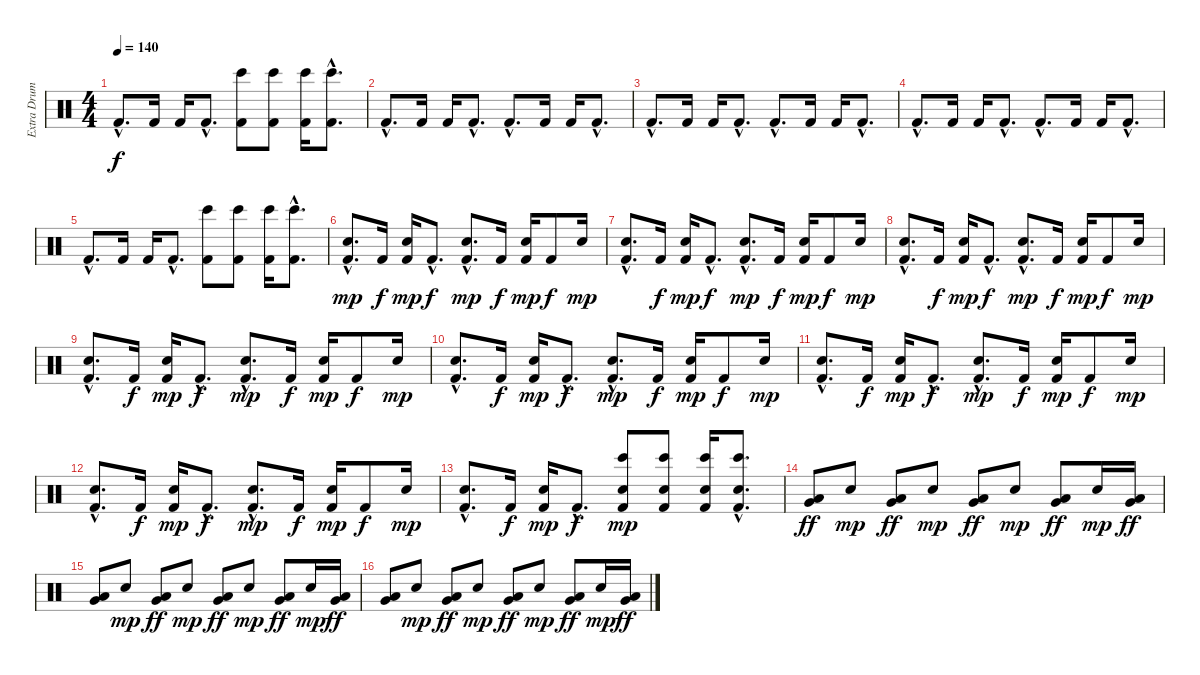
\track ("Extra Drums" "Extra Drum") {instrument percussion}
\staff {score}
\articulation defaults
\ts (4 4)
\tempo 140
\clef neutral
\ks c "Kick (hit) 2"{hac}.8{d dy f} "Kick (hit) 2".16 "Kick (hit) 2".16 "Kick (hit) 2"{hac}.8{d}
("Bongo High (hit)" "Kick (hit) 2").8 ("Bongo High (hit)" "Kick (hit) 2").8 ("Bongo High (hit)" "Kick (hit) 2").16 ("Bongo High (hit)"{hac} "Kick (hit) 2"{hac}).8{d} |
"Kick (hit) 2"{hac}.8{d} "Kick (hit) 2".16 "Kick (hit) 2".16 "Kick (hit) 2"{hac}.8{d} "Kick (hit) 2"{hac}.8{d} "Kick (hit) 2".16 "Kick (hit) 2".16 "Kick (hit) 2"{hac}.8{d} |
"Kick (hit) 2"{hac}.8{d} "Kick (hit) 2".16 "Kick (hit) 2".16 "Kick (hit) 2"{hac}.8{d} "Kick (hit) 2"{hac}.8{d} "Kick (hit) 2".16 "Kick (hit) 2".16 "Kick (hit) 2"{hac}.8{d} |
"Kick (hit) 2"{hac}.8{d} "Kick (hit) 2".16 "Kick (hit) 2".16 "Kick (hit) 2"{hac}.8{d} "Kick (hit) 2"{hac}.8{d} "Kick (hit) 2".16 "Kick (hit) 2".16 "Kick (hit) 2"{hac}.8{d} |
"Kick (hit) 2"{hac}.8{d} "Kick (hit) 2".16 "Kick (hit) 2".16 "Kick (hit) 2"{hac}.8{d} ("Bongo High (hit)" "Kick (hit) 2").8 ("Bongo High (hit)" "Kick (hit) 2").8 ("Bongo High (hit)" "Kick (hit) 2").16 ("Bongo High (hit)"{hac} "Kick (hit) 2"{hac}).8{d} |
("Snare (hit) 2"{hac} "Kick (hit) 2"{hac}).8{d dy mp} "Kick (hit) 2".16{dy f} ("Snare (hit) 2" "Kick (hit) 2").16{dy mp} "Kick (hit) 2"{hac}.8{d dy f} ("Snare (hit) 2"{hac} "Kick (hit) 2"{hac}).8{d dy mp} "Kick (hit) 2".16{dy f} ("Snare (hit) 2" "Kick (hit) 2").16{dy mp} "Kick (hit) 2".8{dy f} "Snare (hit) 2".16{dy mp} |
("Snare (hit) 2"{hac} "Kick (hit) 2"{hac}).8{d} "Kick (hit) 2".16{dy f} ("Snare (hit) 2" "Kick (hit) 2").16{dy mp} "Kick (hit) 2"{hac}.8{d dy f} ("Snare (hit) 2"{hac} "Kick (hit) 2"{hac}).8{d dy mp} "Kick (hit) 2".16{dy f} ("Snare (hit) 2" "Kick (hit) 2").16{dy mp} "Kick (hit) 2".8{dy f} "Snare (hit) 2".16{dy mp} |
("Snare (hit) 2"{hac} "Kick (hit) 2"{hac}).8{d} "Kick (hit) 2".16{dy f} ("Snare (hit) 2" "Kick (hit) 2").16{dy mp} "Kick (hit) 2"{hac}.8{d dy f} ("Snare (hit) 2"{hac} "Kick (hit) 2"{hac}).8{d dy mp} "Kick (hit) 2".16{dy f} ("Snare (hit) 2" "Kick (hit) 2").16{dy mp} "Kick (hit) 2".8{dy f} "Snare (hit) 2".16{dy mp} |
("Snare (hit) 2"{hac} "Kick (hit) 2"{hac}).8{d} "Kick (hit) 2".16{dy f} ("Snare (hit) 2" "Kick (hit) 2").16{dy mp} "Kick (hit) 2"{hac}.8{d dy f} ("Snare (hit) 2"{hac} "Kick (hit) 2"{hac}).8{d dy mp} "Kick (hit) 2".16{dy f} ("Snare (hit) 2" "Kick (hit) 2").16{dy mp} "Kick (hit) 2".8{dy f} "Snare (hit) 2".16{dy mp} |
("Snare (hit) 2"{hac} "Kick (hit) 2"{hac}).8{d} "Kick (hit) 2".16{dy f} ("Snare (hit) 2" "Kick (hit) 2").16{dy mp} "Kick (hit) 2"{hac}.8{d dy f} ("Snare (hit) 2"{hac} "Kick (hit) 2"{hac}).8{d dy mp} "Kick (hit) 2".16{dy f} ("Snare (hit) 2" "Kick (hit) 2").16{dy mp} "Kick (hit) 2".8{dy f} "Snare (hit) 2".16{dy mp} |
("Snare (hit) 2"{hac} "Kick (hit) 2"{hac}).8{d} "Kick (hit) 2".16{dy f} ("Snare (hit) 2" "Kick (hit) 2").16{dy mp} "Kick (hit) 2"{hac}.8{d dy f} ("Snare (hit) 2"{hac} "Kick (hit) 2"{hac}).8{d dy mp} "Kick (hit) 2".16{dy f} ("Snare (hit) 2" "Kick (hit) 2").16{dy mp} "Kick (hit) 2".8{dy f} "Snare (hit) 2".16{dy mp} |
("Snare (hit) 2"{hac} "Kick (hit) 2"{hac}).8{d} "Kick (hit) 2".16{dy f} ("Snare (hit) 2" "Kick (hit) 2").16{dy mp} "Kick (hit) 2"{hac}.8{d dy f} ("Snare (hit) 2"{hac} "Kick (hit) 2"{hac}).8{d dy mp} "Kick (hit) 2".16{dy f} ("Snare (hit) 2" "Kick (hit) 2").16{dy mp} "Kick (hit) 2".8{dy f} "Snare (hit) 2".16{dy mp} |
("Snare (hit) 2"{hac} "Kick (hit) 2"{hac}).8{d} "Kick (hit) 2".16{dy f} ("Snare (hit) 2" "Kick (hit) 2").16{dy mp} "Kick (hit) 2"{hac}.8{d dy f} ("Snare (hit) 2" "Bongo High (hit)" "Kick (hit) 2").8{dy mp} ("Snare (hit) 2" "Bongo High (hit)" "Kick (hit) 2").8 ("Snare (hit) 2" "Bongo High (hit)" "Kick (hit) 2").16 ("Snare (hit) 2"{hac} "Bongo High (hit)"{hac} "Kick (hit) 2"{hac}).8{d} |
("Low Floor Tom (hit)" "Very Low Tom (hit)").8{dy ff} "Snare (hit) 2".8{dy mp} ("Low Floor Tom (hit)" "Very Low Tom (hit)").8{dy ff} "Snare (hit) 2".8{dy mp} ("Low Floor Tom (hit)" "Very Low Tom (hit)").8{dy ff} "Snare (hit) 2".8{dy mp} ("Low Floor Tom (hit)" "Very Low Tom (hit)").8{dy ff} "Snare (hit) 2".16{dy mp} ("Low Floor Tom (hit)" "Very Low Tom (hit)").16{dy ff} |
("Low Floor Tom (hit)" "Very Low Tom (hit)").8 "Snare (hit) 2".8{dy mp} ("Low Floor Tom (hit)" "Very Low Tom (hit)").8{dy ff} "Snare (hit) 2".8{dy mp} ("Low Floor Tom (hit)" "Very Low Tom (hit)").8{dy ff} "Snare (hit) 2".8{dy mp} ("Low Floor Tom (hit)" "Very Low Tom (hit)").8{dy ff} "Snare (hit) 2".16{dy mp} ("Low Floor Tom (hit)" "Very Low Tom (hit)").16{dy ff} |
("Low Floor Tom (hit)" "Very Low Tom (hit)").8 "Snare (hit) 2".8{dy mp} ("Low Floor Tom (hit)" "Very Low Tom (hit)").8{dy ff} "Snare (hit) 2".8{dy mp} ("Low Floor Tom (hit)" "Very Low Tom (hit)").8{dy ff} "Snare (hit) 2".8{dy mp} ("Low Floor Tom (hit)" "Very Low Tom (hit)").8{dy ff} "Snare (hit) 2".16{dy mp} ("Low Floor Tom (hit)" "Very Low Tom (hit)").16{dy ff}
